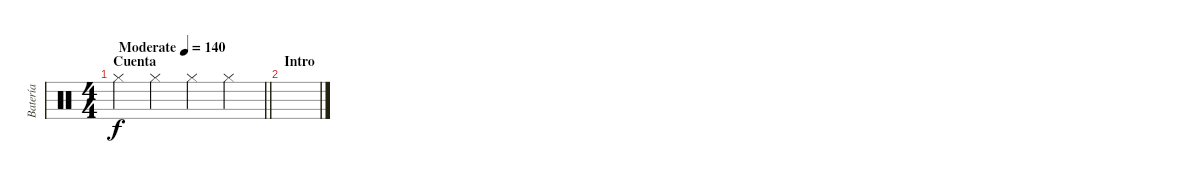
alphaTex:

\track ("Batería" "Batería") {instrument percussion}
\staff {score}
\articulation defaults
\ts (4 4)
\section ("" "Cuenta")
\tempo (140 "Moderate")
\clef neutral
\barLineRight lightlight
\ks c "Hi-Hat (closed)".4{dy f} "Hi-Hat (closed)".4 "Hi-Hat (closed)".4 "Hi-Hat (closed)".4
|
\section ("" "Intro")
